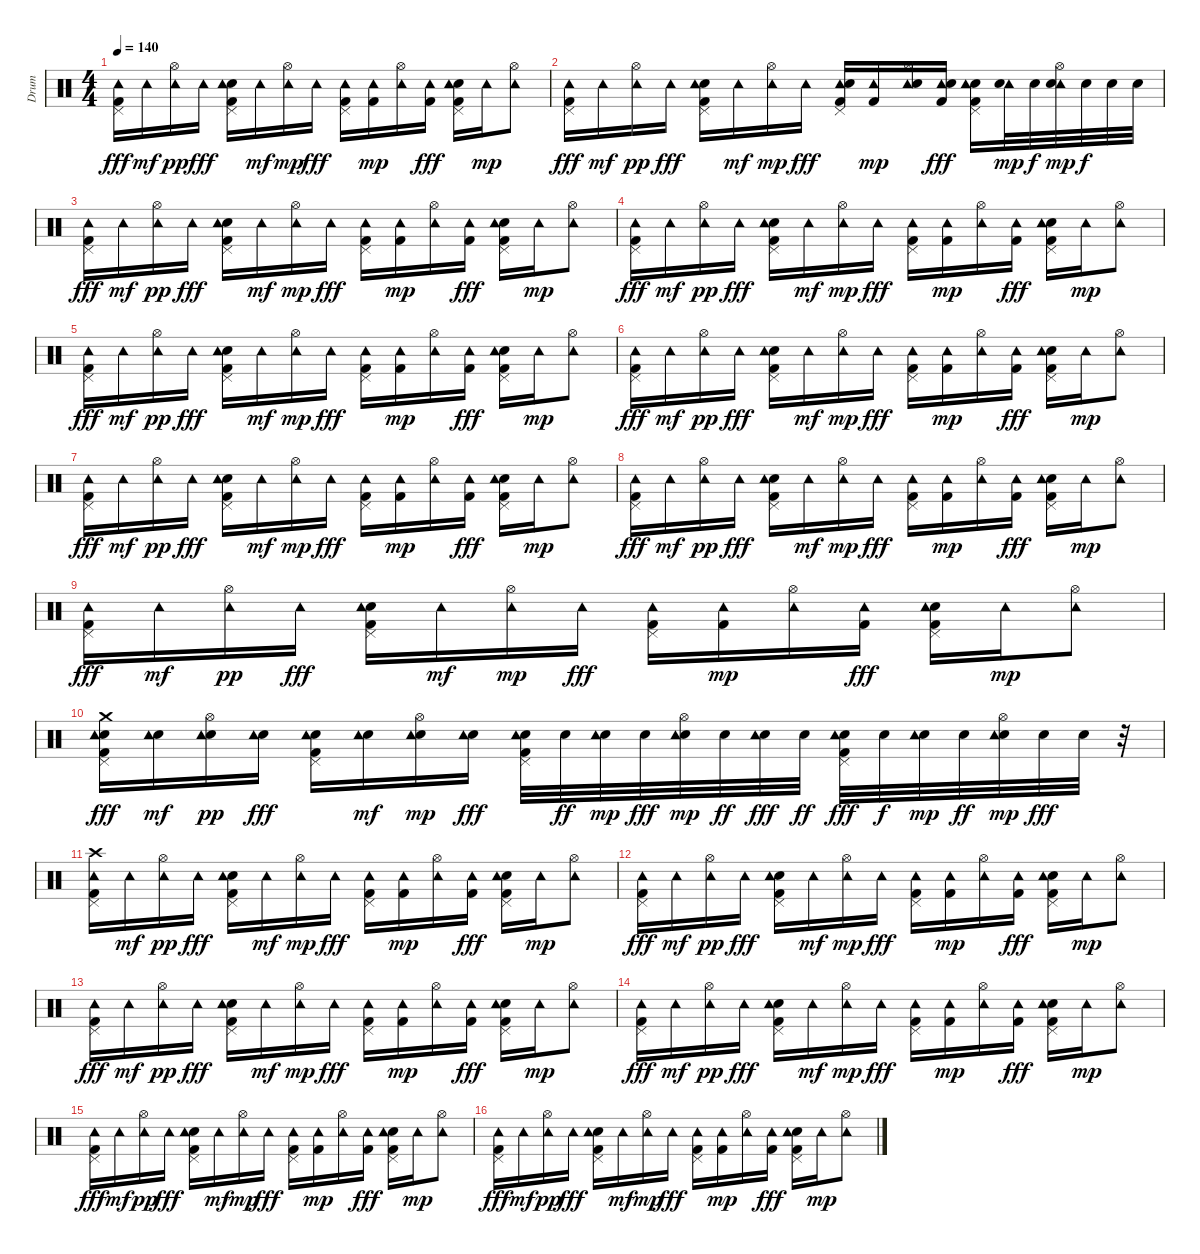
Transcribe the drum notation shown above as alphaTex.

\track ("Drum" "Drum") {instrument percussion}
\staff {score}
\articulation defaults
\ts (4 4)
\tempo 140
\clef neutral
\ks c
("Tambourine (hit)" "Kick (hit) 2" "Pedal Hi-Hat (hit)").16{dy fff} "Tambourine (hit)".16{dy mf} ("Hi-Hat (open)" "Tambourine (hit)").16{dy pp} "Tambourine (hit)".16{dy fff} ("Snare (hit) 2" "Tambourine (hit)" "Kick (hit) 2" "Pedal Hi-Hat (hit)").16 "Tambourine (hit)".16{dy mf} ("Hi-Hat (open)" "Tambourine (hit)").16{dy mp} "Tambourine (hit)".16{dy fff} ("Tambourine (hit)" "Kick (hit) 2" "Pedal Hi-Hat (hit)").16 ("Kick (hit) 2" "Tambourine (hit)").16{dy mp} ("Hi-Hat (open)" "Tambourine (hit)").16 ("Kick (hit) 2" "Tambourine (hit)").16{dy fff} ("Snare (hit) 2" "Tambourine (hit)" "Kick (hit) 2" "Pedal Hi-Hat (hit)").16 "Tambourine (hit)".16{dy mp} ("Hi-Hat (open)" "Tambourine (hit)").8 |
("Tambourine (hit)" "Kick (hit) 2" "Pedal Hi-Hat (hit)").16{dy fff} "Tambourine (hit)".16{dy mf} ("Hi-Hat (open)" "Tambourine (hit)").16{dy pp} "Tambourine (hit)".16{dy fff} ("Snare (hit) 2" "Tambourine (hit)" "Kick (hit) 2" "Pedal Hi-Hat (hit)").16 "Tambourine (hit)".16{dy mf} ("Hi-Hat (open)" "Tambourine (hit)").16{dy mp} "Tambourine (hit)".16{dy fff} ("Tambourine (hit)" "Kick (hit) 2" "Pedal Hi-Hat (hit)" "Snare (hit) 2").16 ("Kick (hit) 2" "Tambourine (hit)").16{dy mp} ("Hi-Hat (open)" "Tambourine (hit)" "Snare (hit) 2").16 ("Kick (hit) 2" "Tambourine (hit)" "Snare (hit) 2").16{dy fff} ("Snare (hit) 2" "Tambourine (hit)" "Kick (hit) 2" "Pedal Hi-Hat (hit)").16 ("Tambourine (hit)" "Snare (hit) 2").32{dy mp} "Snare (hit) 2".32{dy f} ("Hi-Hat (open)" "Tambourine (hit)" "Snare (hit) 2").32{dy mp} "Snare (hit) 2".32{dy f} "Snare (hit) 2".32 "Snare (hit) 2".32 |
("Tambourine (hit)" "Kick (hit) 2" "Pedal Hi-Hat (hit)").16{dy fff} "Tambourine (hit)".16{dy mf} ("Hi-Hat (open)" "Tambourine (hit)").16{dy pp} "Tambourine (hit)".16{dy fff} ("Snare (hit) 2" "Tambourine (hit)" "Kick (hit) 2" "Pedal Hi-Hat (hit)").16 "Tambourine (hit)".16{dy mf} ("Hi-Hat (open)" "Tambourine (hit)").16{dy mp} "Tambourine (hit)".16{dy fff} ("Tambourine (hit)" "Kick (hit) 2" "Pedal Hi-Hat (hit)").16 ("Kick (hit) 2" "Tambourine (hit)").16{dy mp} ("Hi-Hat (open)" "Tambourine (hit)").16 ("Kick (hit) 2" "Tambourine (hit)").16{dy fff} ("Snare (hit) 2" "Tambourine (hit)" "Kick (hit) 2" "Pedal Hi-Hat (hit)").16 "Tambourine (hit)".16{dy mp} ("Hi-Hat (open)" "Tambourine (hit)").8 |
("Tambourine (hit)" "Kick (hit) 2" "Pedal Hi-Hat (hit)").16{dy fff} "Tambourine (hit)".16{dy mf} ("Hi-Hat (open)" "Tambourine (hit)").16{dy pp} "Tambourine (hit)".16{dy fff} ("Snare (hit) 2" "Tambourine (hit)" "Kick (hit) 2" "Pedal Hi-Hat (hit)").16 "Tambourine (hit)".16{dy mf} ("Hi-Hat (open)" "Tambourine (hit)").16{dy mp} "Tambourine (hit)".16{dy fff} ("Tambourine (hit)" "Kick (hit) 2" "Pedal Hi-Hat (hit)").16 ("Kick (hit) 2" "Tambourine (hit)").16{dy mp} ("Hi-Hat (open)" "Tambourine (hit)").16 ("Kick (hit) 2" "Tambourine (hit)").16{dy fff} ("Snare (hit) 2" "Tambourine (hit)" "Kick (hit) 2" "Pedal Hi-Hat (hit)").16 "Tambourine (hit)".16{dy mp} ("Hi-Hat (open)" "Tambourine (hit)").8 |
("Tambourine (hit)" "Kick (hit) 2" "Pedal Hi-Hat (hit)").16{dy fff} "Tambourine (hit)".16{dy mf} ("Hi-Hat (open)" "Tambourine (hit)").16{dy pp} "Tambourine (hit)".16{dy fff} ("Snare (hit) 2" "Tambourine (hit)" "Kick (hit) 2" "Pedal Hi-Hat (hit)").16 "Tambourine (hit)".16{dy mf} ("Hi-Hat (open)" "Tambourine (hit)").16{dy mp} "Tambourine (hit)".16{dy fff} ("Tambourine (hit)" "Kick (hit) 2" "Pedal Hi-Hat (hit)").16 ("Kick (hit) 2" "Tambourine (hit)").16{dy mp} ("Hi-Hat (open)" "Tambourine (hit)").16 ("Kick (hit) 2" "Tambourine (hit)").16{dy fff} ("Snare (hit) 2" "Tambourine (hit)" "Kick (hit) 2" "Pedal Hi-Hat (hit)").16 "Tambourine (hit)".16{dy mp} ("Hi-Hat (open)" "Tambourine (hit)").8 |
("Tambourine (hit)" "Kick (hit) 2" "Pedal Hi-Hat (hit)").16{dy fff} "Tambourine (hit)".16{dy mf} ("Hi-Hat (open)" "Tambourine (hit)").16{dy pp} "Tambourine (hit)".16{dy fff} ("Snare (hit) 2" "Tambourine (hit)" "Kick (hit) 2" "Pedal Hi-Hat (hit)").16 "Tambourine (hit)".16{dy mf} ("Hi-Hat (open)" "Tambourine (hit)").16{dy mp} "Tambourine (hit)".16{dy fff} ("Tambourine (hit)" "Kick (hit) 2" "Pedal Hi-Hat (hit)").16 ("Kick (hit) 2" "Tambourine (hit)").16{dy mp} ("Hi-Hat (open)" "Tambourine (hit)").16 ("Kick (hit) 2" "Tambourine (hit)").16{dy fff} ("Snare (hit) 2" "Tambourine (hit)" "Kick (hit) 2" "Pedal Hi-Hat (hit)").16 "Tambourine (hit)".16{dy mp} ("Hi-Hat (open)" "Tambourine (hit)").8 |
("Tambourine (hit)" "Kick (hit) 2" "Pedal Hi-Hat (hit)").16{dy fff} "Tambourine (hit)".16{dy mf} ("Hi-Hat (open)" "Tambourine (hit)").16{dy pp} "Tambourine (hit)".16{dy fff} ("Snare (hit) 2" "Tambourine (hit)" "Kick (hit) 2" "Pedal Hi-Hat (hit)").16 "Tambourine (hit)".16{dy mf} ("Hi-Hat (open)" "Tambourine (hit)").16{dy mp} "Tambourine (hit)".16{dy fff} ("Tambourine (hit)" "Kick (hit) 2" "Pedal Hi-Hat (hit)").16 ("Kick (hit) 2" "Tambourine (hit)").16{dy mp} ("Hi-Hat (open)" "Tambourine (hit)").16 ("Kick (hit) 2" "Tambourine (hit)").16{dy fff} ("Snare (hit) 2" "Tambourine (hit)" "Kick (hit) 2" "Pedal Hi-Hat (hit)").16 "Tambourine (hit)".16{dy mp} ("Hi-Hat (open)" "Tambourine (hit)").8 |
("Tambourine (hit)" "Kick (hit) 2" "Pedal Hi-Hat (hit)").16{dy fff} "Tambourine (hit)".16{dy mf} ("Hi-Hat (open)" "Tambourine (hit)").16{dy pp} "Tambourine (hit)".16{dy fff} ("Snare (hit) 2" "Tambourine (hit)" "Kick (hit) 2" "Pedal Hi-Hat (hit)").16 "Tambourine (hit)".16{dy mf} ("Hi-Hat (open)" "Tambourine (hit)").16{dy mp} "Tambourine (hit)".16{dy fff} ("Tambourine (hit)" "Kick (hit) 2" "Pedal Hi-Hat (hit)").16 ("Kick (hit) 2" "Tambourine (hit)").16{dy mp} ("Hi-Hat (open)" "Tambourine (hit)").16 ("Kick (hit) 2" "Tambourine (hit)").16{dy fff} ("Snare (hit) 2" "Tambourine (hit)" "Kick (hit) 2" "Pedal Hi-Hat (hit)").16 "Tambourine (hit)".16{dy mp} ("Hi-Hat (open)" "Tambourine (hit)").8 |
("Tambourine (hit)" "Kick (hit) 2" "Pedal Hi-Hat (hit)").16{dy fff} "Tambourine (hit)".16{dy mf} ("Hi-Hat (open)" "Tambourine (hit)").16{dy pp} "Tambourine (hit)".16{dy fff} ("Snare (hit) 2" "Tambourine (hit)" "Kick (hit) 2" "Pedal Hi-Hat (hit)").16 "Tambourine (hit)".16{dy mf} ("Hi-Hat (open)" "Tambourine (hit)").16{dy mp} "Tambourine (hit)".16{dy fff} ("Tambourine (hit)" "Kick (hit) 2" "Pedal Hi-Hat (hit)").16 ("Kick (hit) 2" "Tambourine (hit)").16{dy mp} ("Hi-Hat (open)" "Tambourine (hit)").16 ("Kick (hit) 2" "Tambourine (hit)").16{dy fff} ("Snare (hit) 2" "Tambourine (hit)" "Kick (hit) 2" "Pedal Hi-Hat (hit)").16 "Tambourine (hit)".16{dy mp} ("Hi-Hat (open)" "Tambourine (hit)").8 |
("Snare (hit) 2" "Tambourine (hit)" "Crash medium (hit)" "Pedal Hi-Hat (hit)" "Kick (hit) 2").16{dy fff} ("Snare (hit) 2" "Tambourine (hit)").16{dy mf} ("Snare (hit) 2" "Hi-Hat (open)" "Tambourine (hit)").16{dy pp} ("Snare (hit) 2" "Tambourine (hit)").16{dy fff} ("Snare (hit) 2" "Tambourine (hit)" "Pedal Hi-Hat (hit)" "Kick (hit) 2").16 ("Snare (hit) 2" "Tambourine (hit)").16{dy mf} ("Snare (hit) 2" "Hi-Hat (open)" "Tambourine (hit)").16{dy mp} ("Snare (hit) 2" "Tambourine (hit)").16{dy fff} ("Snare (hit) 2" "Tambourine (hit)" "Pedal Hi-Hat (hit)" "Kick (hit) 2").32 "Snare (hit) 2".32{dy ff} ("Snare (hit) 2" "Tambourine (hit)").32{dy mp} "Snare (hit) 2".32{dy fff} ("Snare (hit) 2" "Hi-Hat (open)" "Tambourine (hit)").32{dy mp} "Snare (hit) 2".32{dy ff} ("Snare (hit) 2" "Tambourine (hit)").32{dy fff} "Snare (hit) 2".32{dy ff} ("Snare (hit) 2" "Tambourine (hit)" "Pedal Hi-Hat (hit)" "Kick (hit) 2").32{dy fff} "Snare (hit) 2".32{dy f} ("Snare (hit) 2" "Tambourine (hit)").32{dy mp} "Snare (hit) 2".32{dy ff} ("Snare (hit) 2" "Hi-Hat (open)" "Tambourine (hit)").32{dy mp} "Snare (hit) 2".32{dy fff} "Snare (hit) 2".32 r.32 |
("Tambourine (hit)" "Kick (hit) 2" "Pedal Hi-Hat (hit)" "Crash high (hit)").16 "Tambourine (hit)".16{dy mf} ("Hi-Hat (open)" "Tambourine (hit)").16{dy pp} "Tambourine (hit)".16{dy fff} ("Snare (hit) 2" "Tambourine (hit)" "Kick (hit) 2" "Pedal Hi-Hat (hit)").16 "Tambourine (hit)".16{dy mf} ("Hi-Hat (open)" "Tambourine (hit)").16{dy mp} "Tambourine (hit)".16{dy fff} ("Tambourine (hit)" "Kick (hit) 2" "Pedal Hi-Hat (hit)").16 ("Kick (hit) 2" "Tambourine (hit)").16{dy mp} ("Hi-Hat (open)" "Tambourine (hit)").16 ("Kick (hit) 2" "Tambourine (hit)").16{dy fff} ("Snare (hit) 2" "Tambourine (hit)" "Kick (hit) 2" "Pedal Hi-Hat (hit)").16 "Tambourine (hit)".16{dy mp} ("Hi-Hat (open)" "Tambourine (hit)").8 |
("Tambourine (hit)" "Kick (hit) 2" "Pedal Hi-Hat (hit)").16{dy fff} "Tambourine (hit)".16{dy mf} ("Hi-Hat (open)" "Tambourine (hit)").16{dy pp} "Tambourine (hit)".16{dy fff} ("Snare (hit) 2" "Tambourine (hit)" "Kick (hit) 2" "Pedal Hi-Hat (hit)").16 "Tambourine (hit)".16{dy mf} ("Hi-Hat (open)" "Tambourine (hit)").16{dy mp} "Tambourine (hit)".16{dy fff} ("Tambourine (hit)" "Kick (hit) 2" "Pedal Hi-Hat (hit)").16 ("Kick (hit) 2" "Tambourine (hit)").16{dy mp} ("Hi-Hat (open)" "Tambourine (hit)").16 ("Kick (hit) 2" "Tambourine (hit)").16{dy fff} ("Snare (hit) 2" "Tambourine (hit)" "Kick (hit) 2" "Pedal Hi-Hat (hit)").16 "Tambourine (hit)".16{dy mp} ("Hi-Hat (open)" "Tambourine (hit)").8 |
("Tambourine (hit)" "Kick (hit) 2" "Pedal Hi-Hat (hit)").16{dy fff} "Tambourine (hit)".16{dy mf} ("Hi-Hat (open)" "Tambourine (hit)").16{dy pp} "Tambourine (hit)".16{dy fff} ("Snare (hit) 2" "Tambourine (hit)" "Kick (hit) 2" "Pedal Hi-Hat (hit)").16 "Tambourine (hit)".16{dy mf} ("Hi-Hat (open)" "Tambourine (hit)").16{dy mp} "Tambourine (hit)".16{dy fff} ("Tambourine (hit)" "Kick (hit) 2" "Pedal Hi-Hat (hit)").16 ("Kick (hit) 2" "Tambourine (hit)").16{dy mp} ("Hi-Hat (open)" "Tambourine (hit)").16 ("Kick (hit) 2" "Tambourine (hit)").16{dy fff} ("Snare (hit) 2" "Tambourine (hit)" "Kick (hit) 2" "Pedal Hi-Hat (hit)").16 "Tambourine (hit)".16{dy mp} ("Hi-Hat (open)" "Tambourine (hit)").8 |
("Tambourine (hit)" "Kick (hit) 2" "Pedal Hi-Hat (hit)").16{dy fff} "Tambourine (hit)".16{dy mf} ("Hi-Hat (open)" "Tambourine (hit)").16{dy pp} "Tambourine (hit)".16{dy fff} ("Snare (hit) 2" "Tambourine (hit)" "Kick (hit) 2" "Pedal Hi-Hat (hit)").16 "Tambourine (hit)".16{dy mf} ("Hi-Hat (open)" "Tambourine (hit)").16{dy mp} "Tambourine (hit)".16{dy fff} ("Tambourine (hit)" "Kick (hit) 2" "Pedal Hi-Hat (hit)").16 ("Kick (hit) 2" "Tambourine (hit)").16{dy mp} ("Hi-Hat (open)" "Tambourine (hit)").16 ("Kick (hit) 2" "Tambourine (hit)").16{dy fff} ("Snare (hit) 2" "Tambourine (hit)" "Kick (hit) 2" "Pedal Hi-Hat (hit)").16 "Tambourine (hit)".16{dy mp} ("Hi-Hat (open)" "Tambourine (hit)").8 |
("Tambourine (hit)" "Kick (hit) 2" "Pedal Hi-Hat (hit)").16{dy fff} "Tambourine (hit)".16{dy mf} ("Hi-Hat (open)" "Tambourine (hit)").16{dy pp} "Tambourine (hit)".16{dy fff} ("Snare (hit) 2" "Tambourine (hit)" "Kick (hit) 2" "Pedal Hi-Hat (hit)").16 "Tambourine (hit)".16{dy mf} ("Hi-Hat (open)" "Tambourine (hit)").16{dy mp} "Tambourine (hit)".16{dy fff} ("Tambourine (hit)" "Kick (hit) 2" "Pedal Hi-Hat (hit)").16 ("Kick (hit) 2" "Tambourine (hit)").16{dy mp} ("Hi-Hat (open)" "Tambourine (hit)").16 ("Kick (hit) 2" "Tambourine (hit)").16{dy fff} ("Snare (hit) 2" "Tambourine (hit)" "Kick (hit) 2" "Pedal Hi-Hat (hit)").16 "Tambourine (hit)".16{dy mp} ("Hi-Hat (open)" "Tambourine (hit)").8 |
("Tambourine (hit)" "Kick (hit) 2" "Pedal Hi-Hat (hit)").16{dy fff} "Tambourine (hit)".16{dy mf} ("Hi-Hat (open)" "Tambourine (hit)").16{dy pp} "Tambourine (hit)".16{dy fff} ("Snare (hit) 2" "Tambourine (hit)" "Kick (hit) 2" "Pedal Hi-Hat (hit)").16 "Tambourine (hit)".16{dy mf} ("Hi-Hat (open)" "Tambourine (hit)").16{dy mp} "Tambourine (hit)".16{dy fff} ("Tambourine (hit)" "Kick (hit) 2" "Pedal Hi-Hat (hit)").16 ("Kick (hit) 2" "Tambourine (hit)").16{dy mp} ("Hi-Hat (open)" "Tambourine (hit)").16 ("Kick (hit) 2" "Tambourine (hit)").16{dy fff} ("Snare (hit) 2" "Tambourine (hit)" "Kick (hit) 2" "Pedal Hi-Hat (hit)").16 "Tambourine (hit)".16{dy mp} ("Hi-Hat (open)" "Tambourine (hit)").8
